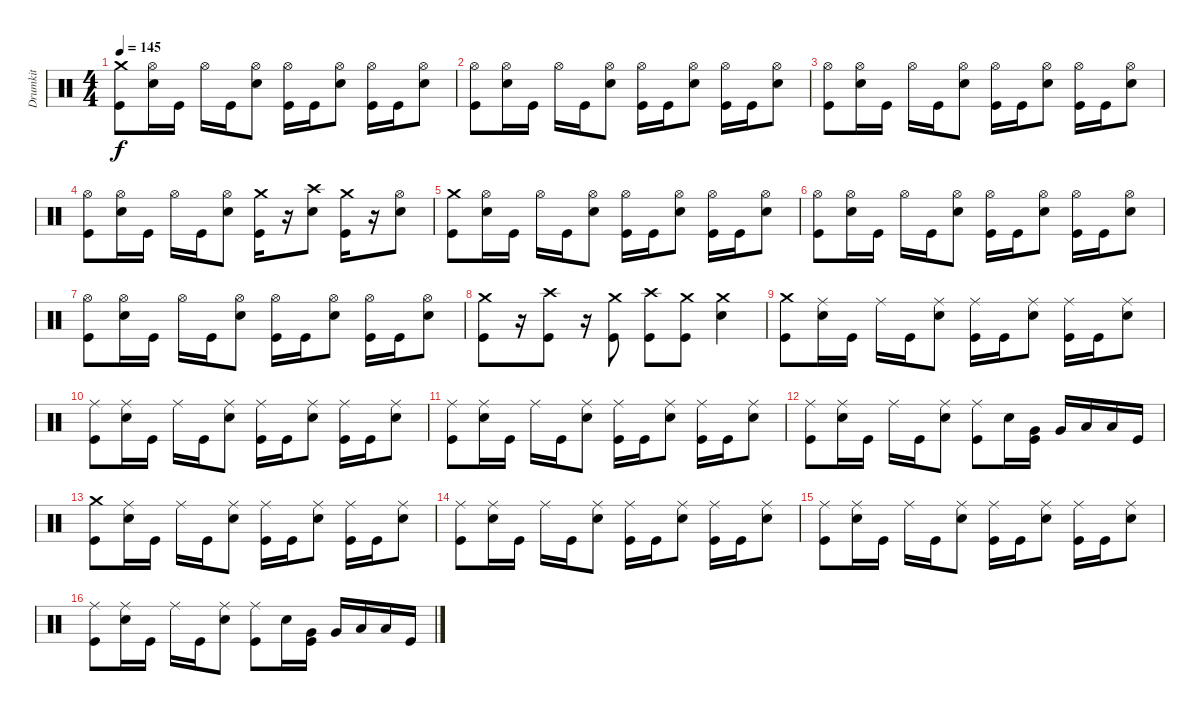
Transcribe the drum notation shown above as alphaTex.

\track ("Drumkit" "Drumkit") {instrument percussion}
\staff {score}
\articulation defaults
\ts (4 4)
\tempo 145
\clef neutral
\ks c
("Kick (hit)" "Crash medium (hit)").8{dy f} ("Snare (hit) 2" "Hi-Hat (open)").16 "Kick (hit)".16 "Hi-Hat (open)".16 "Kick (hit)".16 ("Snare (hit) 2" "Hi-Hat (open)").8 ("Hi-Hat (open)" "Kick (hit)").16 "Kick (hit)".16 ("Snare (hit) 2" "Hi-Hat (open)").8 ("Hi-Hat (open)" "Kick (hit)").16 "Kick (hit)".16 ("Snare (hit) 2" "Hi-Hat (open)").8 |
("Kick (hit)" "Hi-Hat (open)").8 ("Snare (hit) 2" "Hi-Hat (open)").16 "Kick (hit)".16 "Hi-Hat (open)".16 "Kick (hit)".16 ("Snare (hit) 2" "Hi-Hat (open)").8 ("Hi-Hat (open)" "Kick (hit)").16 "Kick (hit)".16 ("Snare (hit) 2" "Hi-Hat (open)").8 ("Hi-Hat (open)" "Kick (hit)").16 "Kick (hit)".16 ("Snare (hit) 2" "Hi-Hat (open)").8 |
("Kick (hit)" "Hi-Hat (open)").8 ("Snare (hit) 2" "Hi-Hat (open)").16 "Kick (hit)".16 "Hi-Hat (open)".16 "Kick (hit)".16 ("Snare (hit) 2" "Hi-Hat (open)").8 ("Hi-Hat (open)" "Kick (hit)").16 "Kick (hit)".16 ("Snare (hit) 2" "Hi-Hat (open)").8 ("Hi-Hat (open)" "Kick (hit)").16 "Kick (hit)".16 ("Snare (hit) 2" "Hi-Hat (open)").8 |
("Kick (hit)" "Hi-Hat (open)").8 ("Snare (hit) 2" "Hi-Hat (open)").16 "Kick (hit)".16 "Hi-Hat (open)".16 "Kick (hit)".16 ("Snare (hit) 2" "Hi-Hat (open)").8 ("Kick (hit)" "Crash medium (hit)").16 r.16 ("Snare (hit) 2" "Crash high (hit)").8 ("Kick (hit)" "Crash medium (hit)").16 r.16 ("Snare (hit) 2" "Hi-Hat (open)").8 |
("Kick (hit)" "Crash medium (hit)").8 ("Snare (hit) 2" "Hi-Hat (open)").16 "Kick (hit)".16 "Hi-Hat (open)".16 "Kick (hit)".16 ("Snare (hit) 2" "Hi-Hat (open)").8 ("Hi-Hat (open)" "Kick (hit)").16 "Kick (hit)".16 ("Snare (hit) 2" "Hi-Hat (open)").8 ("Hi-Hat (open)" "Kick (hit)").16 "Kick (hit)".16 ("Snare (hit) 2" "Hi-Hat (open)").8 |
("Kick (hit)" "Hi-Hat (open)").8 ("Snare (hit) 2" "Hi-Hat (open)").16 "Kick (hit)".16 "Hi-Hat (open)".16 "Kick (hit)".16 ("Snare (hit) 2" "Hi-Hat (open)").8 ("Hi-Hat (open)" "Kick (hit)").16 "Kick (hit)".16 ("Snare (hit) 2" "Hi-Hat (open)").8 ("Hi-Hat (open)" "Kick (hit)").16 "Kick (hit)".16 ("Snare (hit) 2" "Hi-Hat (open)").8 |
("Kick (hit)" "Hi-Hat (open)").8 ("Snare (hit) 2" "Hi-Hat (open)").16 "Kick (hit)".16 "Hi-Hat (open)".16 "Kick (hit)".16 ("Snare (hit) 2" "Hi-Hat (open)").8 ("Hi-Hat (open)" "Kick (hit)").16 "Kick (hit)".16 ("Snare (hit) 2" "Hi-Hat (open)").8 ("Hi-Hat (open)" "Kick (hit)").16 "Kick (hit)".16 ("Snare (hit) 2" "Hi-Hat (open)").8 |
("Crash medium (hit)" "Kick (hit)").8 r.16 ("Crash high (hit)" "Kick (hit)").8 r.16 ("Crash medium (hit)" "Kick (hit)").8 ("Crash high (hit)" "Kick (hit)").8 ("Crash medium (hit)" "Kick (hit)").8 ("Snare (hit) 2" "Crash medium (hit)").4 |
("Kick (hit)" "Crash medium (hit)").8 ("Snare (hit) 2" "Ride (middle)").16 "Kick (hit)".16 "Ride (middle)".16 "Kick (hit)".16 ("Snare (hit) 2" "Ride (middle)").8 ("Kick (hit)" "Ride (middle)").16 "Kick (hit)".16 ("Snare (hit) 2" "Ride (middle)").8 ("Kick (hit)" "Ride (middle)").16 "Kick (hit)".16 ("Snare (hit) 2" "Ride (middle)").8 |
("Kick (hit)" "Ride (middle)").8 ("Snare (hit) 2" "Ride (middle)").16 "Kick (hit)".16 "Ride (middle)".16 "Kick (hit)".16 ("Snare (hit) 2" "Ride (middle)").8 ("Kick (hit)" "Ride (middle)").16 "Kick (hit)".16 ("Snare (hit) 2" "Ride (middle)").8 ("Kick (hit)" "Ride (middle)").16 "Kick (hit)".16 ("Snare (hit) 2" "Ride (middle)").8 |
("Kick (hit)" "Ride (middle)").8 ("Snare (hit) 2" "Ride (middle)").16 "Kick (hit)".16 "Ride (middle)".16 "Kick (hit)".16 ("Snare (hit) 2" "Ride (middle)").8 ("Kick (hit)" "Ride (middle)").16 "Kick (hit)".16 ("Snare (hit) 2" "Ride (middle)").8 ("Kick (hit)" "Ride (middle)").16 "Kick (hit)".16 ("Snare (hit) 2" "Ride (middle)").8 |
("Kick (hit)" "Ride (middle)").8 ("Snare (hit) 2" "Ride (middle)").16 "Kick (hit)".16 "Ride (middle)".16 "Kick (hit)".16 ("Snare (hit) 2" "Ride (middle)").8 ("Kick (hit)" "Ride (middle)").8 "Snare (hit) 2".16 ("Kick (hit)" "Very Low Tom (hit)").16 "Very Low Tom (hit)".16 "Low Tom (hit)".16 "Low Floor Tom (hit)".16 "Kick (hit)".16 |
("Kick (hit)" "Crash medium (hit)").8 ("Snare (hit) 2" "Ride (middle)").16 "Kick (hit)".16 "Ride (middle)".16 "Kick (hit)".16 ("Snare (hit) 2" "Ride (middle)").8 ("Kick (hit)" "Ride (middle)").16 "Kick (hit)".16 ("Snare (hit) 2" "Ride (middle)").8 ("Kick (hit)" "Ride (middle)").16 "Kick (hit)".16 ("Snare (hit) 2" "Ride (middle)").8 |
("Kick (hit)" "Ride (middle)").8 ("Snare (hit) 2" "Ride (middle)").16 "Kick (hit)".16 "Ride (middle)".16 "Kick (hit)".16 ("Snare (hit) 2" "Ride (middle)").8 ("Kick (hit)" "Ride (middle)").16 "Kick (hit)".16 ("Snare (hit) 2" "Ride (middle)").8 ("Kick (hit)" "Ride (middle)").16 "Kick (hit)".16 ("Snare (hit) 2" "Ride (middle)").8 |
("Kick (hit)" "Ride (middle)").8 ("Snare (hit) 2" "Ride (middle)").16 "Kick (hit)".16 "Ride (middle)".16 "Kick (hit)".16 ("Snare (hit) 2" "Ride (middle)").8 ("Kick (hit)" "Ride (middle)").16 "Kick (hit)".16 ("Snare (hit) 2" "Ride (middle)").8 ("Kick (hit)" "Ride (middle)").16 "Kick (hit)".16 ("Snare (hit) 2" "Ride (middle)").8 |
("Kick (hit)" "Ride (middle)").8 ("Snare (hit) 2" "Ride (middle)").16 "Kick (hit)".16 "Ride (middle)".16 "Kick (hit)".16 ("Snare (hit) 2" "Ride (middle)").8 ("Kick (hit)" "Ride (middle)").8 "Snare (hit) 2".16 ("Kick (hit)" "Very Low Tom (hit)").16 "Very Low Tom (hit)".16 "Low Tom (hit)".16 "Low Floor Tom (hit)".16 "Kick (hit)".16
